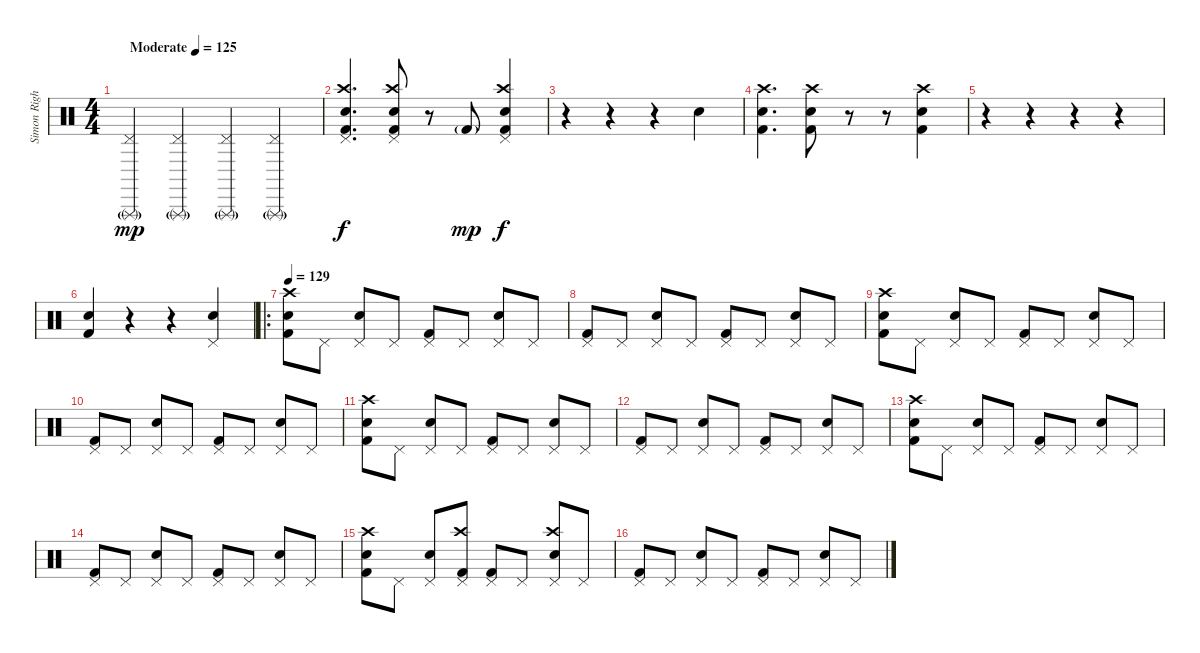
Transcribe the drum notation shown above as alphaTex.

\track ("Simon Right" "Simon Righ") {instrument percussion}
\staff {score}
\articulation defaults
\ts (4 4)
\tempo (125 "Moderate")
\clef neutral
\ks c
("Triangle (rnute)"{g} "Pedal Hi-Hat (hit)").4{dy mp} ("Triangle (rnute)"{g} "Pedal Hi-Hat (hit)").4 ("Triangle (rnute)"{g} "Pedal Hi-Hat (hit)").4 ("Triangle (rnute)"{g} "Pedal Hi-Hat (hit)").4 |
("Crash high (hit)" "Snare (hit) 2" "Kick (hit) 2" "Pedal Hi-Hat (hit)").4{d dy f} ("Crash high (hit)" "Kick (hit) 2" "Snare (hit) 2" "Pedal Hi-Hat (hit)").8 r.8 "Kick (hit) 2"{g}.8{dy mp} ("Crash high (hit)" "Kick (hit) 2" "Snare (hit) 2" "Pedal Hi-Hat (hit)").4{dy f} |
r.4 r.4 r.4 "Snare (hit) 2".4 |
("Crash high (hit)" "Snare (hit) 2" "Kick (hit) 2").4{d} ("Crash high (hit)" "Kick (hit) 2" "Snare (hit) 2").8 r.8 r.8 ("Crash high (hit)" "Kick (hit) 2" "Snare (hit) 2").4 |
r.4 r.4 r.4 r.4 |
("Kick (hit) 2" "Snare (hit) 2").4 r.4 r.4 ("Pedal Hi-Hat (hit)" "Snare (hit) 2").4 |
\ro
\tempo 129
("Crash high (hit)" "Snare (hit) 2" "Kick (hit) 2").8 "Pedal Hi-Hat (hit)".8 ("Snare (hit) 2" "Pedal Hi-Hat (hit)").8 "Pedal Hi-Hat (hit)".8 ("Kick (hit) 2" "Pedal Hi-Hat (hit)").8 "Pedal Hi-Hat (hit)".8 ("Pedal Hi-Hat (hit)" "Snare (hit) 2").8 "Pedal Hi-Hat (hit)".8 |
("Pedal Hi-Hat (hit)" "Kick (hit) 2").8 "Pedal Hi-Hat (hit)".8 ("Snare (hit) 2" "Pedal Hi-Hat (hit)").8 "Pedal Hi-Hat (hit)".8 ("Pedal Hi-Hat (hit)" "Kick (hit) 2").8 "Pedal Hi-Hat (hit)".8 ("Snare (hit) 2" "Pedal Hi-Hat (hit)").8 "Pedal Hi-Hat (hit)".8 |
("Crash high (hit)" "Snare (hit) 2" "Kick (hit) 2").8 "Pedal Hi-Hat (hit)".8 ("Snare (hit) 2" "Pedal Hi-Hat (hit)").8 "Pedal Hi-Hat (hit)".8 ("Kick (hit) 2" "Pedal Hi-Hat (hit)").8 "Pedal Hi-Hat (hit)".8 ("Pedal Hi-Hat (hit)" "Snare (hit) 2").8 "Pedal Hi-Hat (hit)".8 |
("Pedal Hi-Hat (hit)" "Kick (hit) 2").8 "Pedal Hi-Hat (hit)".8 ("Snare (hit) 2" "Pedal Hi-Hat (hit)").8 "Pedal Hi-Hat (hit)".8 ("Pedal Hi-Hat (hit)" "Kick (hit) 2").8 "Pedal Hi-Hat (hit)".8 ("Snare (hit) 2" "Pedal Hi-Hat (hit)").8 "Pedal Hi-Hat (hit)".8 |
("Crash high (hit)" "Snare (hit) 2" "Kick (hit) 2").8 "Pedal Hi-Hat (hit)".8 ("Snare (hit) 2" "Pedal Hi-Hat (hit)").8 "Pedal Hi-Hat (hit)".8 ("Kick (hit) 2" "Pedal Hi-Hat (hit)").8 "Pedal Hi-Hat (hit)".8 ("Pedal Hi-Hat (hit)" "Snare (hit) 2").8 "Pedal Hi-Hat (hit)".8 |
("Pedal Hi-Hat (hit)" "Kick (hit) 2").8 "Pedal Hi-Hat (hit)".8 ("Snare (hit) 2" "Pedal Hi-Hat (hit)").8 "Pedal Hi-Hat (hit)".8 ("Pedal Hi-Hat (hit)" "Kick (hit) 2").8 "Pedal Hi-Hat (hit)".8 ("Snare (hit) 2" "Pedal Hi-Hat (hit)").8 "Pedal Hi-Hat (hit)".8 |
("Crash high (hit)" "Snare (hit) 2" "Kick (hit) 2").8 "Pedal Hi-Hat (hit)".8 ("Snare (hit) 2" "Pedal Hi-Hat (hit)").8 "Pedal Hi-Hat (hit)".8 ("Kick (hit) 2" "Pedal Hi-Hat (hit)").8 "Pedal Hi-Hat (hit)".8 ("Pedal Hi-Hat (hit)" "Snare (hit) 2").8 "Pedal Hi-Hat (hit)".8 |
("Pedal Hi-Hat (hit)" "Kick (hit) 2").8 "Pedal Hi-Hat (hit)".8 ("Snare (hit) 2" "Pedal Hi-Hat (hit)").8 "Pedal Hi-Hat (hit)".8 ("Pedal Hi-Hat (hit)" "Kick (hit) 2").8 "Pedal Hi-Hat (hit)".8 ("Snare (hit) 2" "Pedal Hi-Hat (hit)").8 "Pedal Hi-Hat (hit)".8 |
("Crash high (hit)" "Snare (hit) 2" "Kick (hit) 2").8 "Pedal Hi-Hat (hit)".8 ("Snare (hit) 2" "Pedal Hi-Hat (hit)").8 ("Crash high (hit)" "Kick (hit) 2" "Pedal Hi-Hat (hit)").8 ("Kick (hit) 2" "Pedal Hi-Hat (hit)").8 "Pedal Hi-Hat (hit)".8 ("Crash high (hit)" "Pedal Hi-Hat (hit)" "Snare (hit) 2").8 "Pedal Hi-Hat (hit)".8 |
("Pedal Hi-Hat (hit)" "Kick (hit) 2").8 "Pedal Hi-Hat (hit)".8 ("Snare (hit) 2" "Pedal Hi-Hat (hit)").8 "Pedal Hi-Hat (hit)".8 ("Pedal Hi-Hat (hit)" "Kick (hit) 2").8 "Pedal Hi-Hat (hit)".8 ("Snare (hit) 2" "Pedal Hi-Hat (hit)").8 "Pedal Hi-Hat (hit)".8
